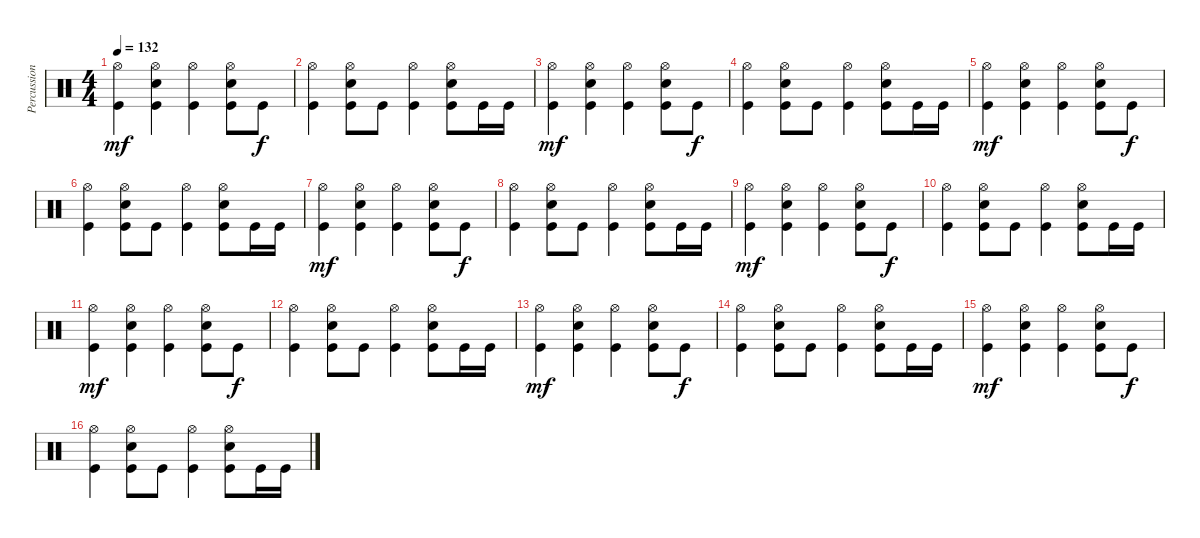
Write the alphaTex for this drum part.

\track ("Percussion" "Percussion") {instrument percussion}
\staff {score}
\articulation defaults
\ts (4 4)
\tempo 132
\clef neutral
\ks c
("Hi-Hat (open)" "Kick (hit)").4{dy mf} ("Hi-Hat (open)" "Electric Snare (hit)" "Kick (hit)").4 ("Hi-Hat (open)" "Kick (hit)").4 ("Hi-Hat (open)" "Electric Snare (hit)" "Kick (hit)").8 "Kick (hit)".8{dy f} |
("Hi-Hat (open)" "Kick (hit)").4 ("Hi-Hat (open)" "Electric Snare (hit)" "Kick (hit)").8 "Kick (hit)".8 ("Hi-Hat (open)" "Kick (hit)").4 ("Hi-Hat (open)" "Electric Snare (hit)" "Kick (hit)").8 "Kick (hit)".16 "Kick (hit)".16 |
("Hi-Hat (open)" "Kick (hit)").4{dy mf} ("Hi-Hat (open)" "Electric Snare (hit)" "Kick (hit)").4 ("Hi-Hat (open)" "Kick (hit)").4 ("Hi-Hat (open)" "Electric Snare (hit)" "Kick (hit)").8 "Kick (hit)".8{dy f} |
("Hi-Hat (open)" "Kick (hit)").4 ("Hi-Hat (open)" "Electric Snare (hit)" "Kick (hit)").8 "Kick (hit)".8 ("Hi-Hat (open)" "Kick (hit)").4 ("Hi-Hat (open)" "Electric Snare (hit)" "Kick (hit)").8 "Kick (hit)".16 "Kick (hit)".16 |
("Hi-Hat (open)" "Kick (hit)").4{dy mf} ("Hi-Hat (open)" "Electric Snare (hit)" "Kick (hit)").4 ("Hi-Hat (open)" "Kick (hit)").4 ("Hi-Hat (open)" "Electric Snare (hit)" "Kick (hit)").8 "Kick (hit)".8{dy f} |
("Hi-Hat (open)" "Kick (hit)").4 ("Hi-Hat (open)" "Electric Snare (hit)" "Kick (hit)").8 "Kick (hit)".8 ("Hi-Hat (open)" "Kick (hit)").4 ("Hi-Hat (open)" "Electric Snare (hit)" "Kick (hit)").8 "Kick (hit)".16 "Kick (hit)".16 |
("Hi-Hat (open)" "Kick (hit)").4{dy mf} ("Hi-Hat (open)" "Electric Snare (hit)" "Kick (hit)").4 ("Hi-Hat (open)" "Kick (hit)").4 ("Hi-Hat (open)" "Electric Snare (hit)" "Kick (hit)").8 "Kick (hit)".8{dy f} |
("Hi-Hat (open)" "Kick (hit)").4 ("Hi-Hat (open)" "Electric Snare (hit)" "Kick (hit)").8 "Kick (hit)".8 ("Hi-Hat (open)" "Kick (hit)").4 ("Hi-Hat (open)" "Electric Snare (hit)" "Kick (hit)").8 "Kick (hit)".16 "Kick (hit)".16 |
("Hi-Hat (open)" "Kick (hit)").4{dy mf} ("Hi-Hat (open)" "Electric Snare (hit)" "Kick (hit)").4 ("Hi-Hat (open)" "Kick (hit)").4 ("Hi-Hat (open)" "Electric Snare (hit)" "Kick (hit)").8 "Kick (hit)".8{dy f} |
("Hi-Hat (open)" "Kick (hit)").4 ("Hi-Hat (open)" "Electric Snare (hit)" "Kick (hit)").8 "Kick (hit)".8 ("Hi-Hat (open)" "Kick (hit)").4 ("Hi-Hat (open)" "Electric Snare (hit)" "Kick (hit)").8 "Kick (hit)".16 "Kick (hit)".16 |
("Hi-Hat (open)" "Kick (hit)").4{dy mf} ("Hi-Hat (open)" "Electric Snare (hit)" "Kick (hit)").4 ("Hi-Hat (open)" "Kick (hit)").4 ("Hi-Hat (open)" "Electric Snare (hit)" "Kick (hit)").8 "Kick (hit)".8{dy f} |
("Hi-Hat (open)" "Kick (hit)").4 ("Hi-Hat (open)" "Electric Snare (hit)" "Kick (hit)").8 "Kick (hit)".8 ("Hi-Hat (open)" "Kick (hit)").4 ("Hi-Hat (open)" "Electric Snare (hit)" "Kick (hit)").8 "Kick (hit)".16 "Kick (hit)".16 |
("Hi-Hat (open)" "Kick (hit)").4{dy mf} ("Hi-Hat (open)" "Electric Snare (hit)" "Kick (hit)").4 ("Hi-Hat (open)" "Kick (hit)").4 ("Hi-Hat (open)" "Electric Snare (hit)" "Kick (hit)").8 "Kick (hit)".8{dy f} |
("Hi-Hat (open)" "Kick (hit)").4 ("Hi-Hat (open)" "Electric Snare (hit)" "Kick (hit)").8 "Kick (hit)".8 ("Hi-Hat (open)" "Kick (hit)").4 ("Hi-Hat (open)" "Electric Snare (hit)" "Kick (hit)").8 "Kick (hit)".16 "Kick (hit)".16 |
("Hi-Hat (open)" "Kick (hit)").4{dy mf} ("Hi-Hat (open)" "Electric Snare (hit)" "Kick (hit)").4 ("Hi-Hat (open)" "Kick (hit)").4 ("Hi-Hat (open)" "Electric Snare (hit)" "Kick (hit)").8 "Kick (hit)".8{dy f} |
("Hi-Hat (open)" "Kick (hit)").4 ("Hi-Hat (open)" "Electric Snare (hit)" "Kick (hit)").8 "Kick (hit)".8 ("Hi-Hat (open)" "Kick (hit)").4 ("Hi-Hat (open)" "Electric Snare (hit)" "Kick (hit)").8 "Kick (hit)".16 "Kick (hit)".16
